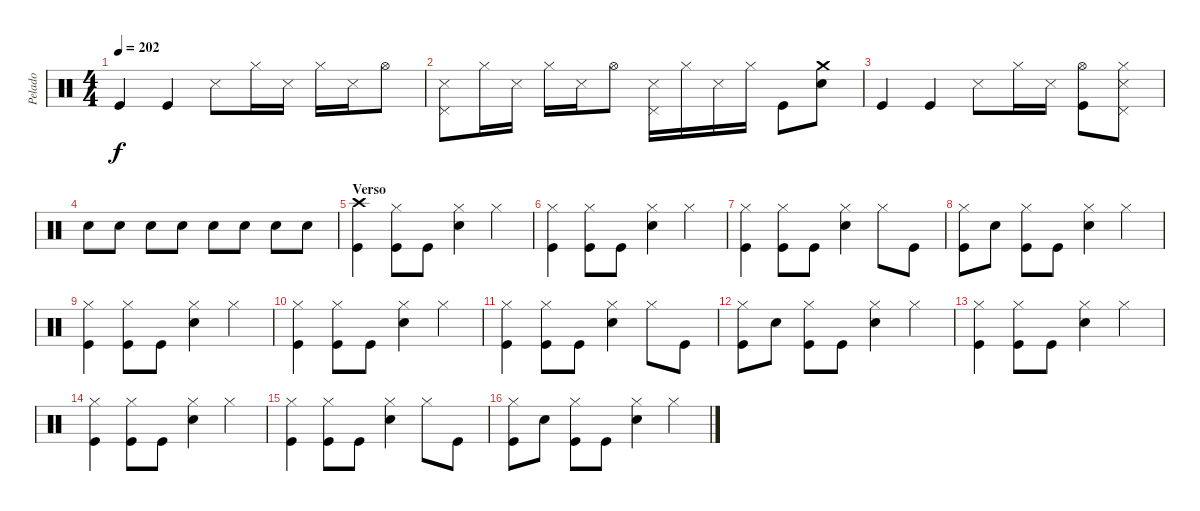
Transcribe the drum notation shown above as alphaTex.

\track ("Pelado" "Pelado") {instrument percussion}
\staff {score}
\articulation defaults
\ts (4 4)
\tempo 202
\clef neutral
\ks c "Kick (hit)".4{dy f} "Kick (hit)".4 "Snare (side stick) 3".8 "Hi-Hat (closed)".16 "Snare (side stick) 3".16 "Hi-Hat (closed)".16 "Snare (side stick) 3".16 "Hi-Hat (open)".8
|
("Snare (side stick) 3" "Pedal Hi-Hat (hit)").8 "Hi-Hat (closed)".16 "Snare (side stick) 3".16 "Hi-Hat (closed)".16 "Snare (side stick) 3".16 "Hi-Hat (open)".8 ("Snare (side stick) 3" "Pedal Hi-Hat (hit)").16 "Hi-Hat (closed)".16 "Snare (side stick) 3".16 "Hi-Hat (closed)".16 "Kick (hit)".8 ("Crash medium (hit)" "Electric Snare (hit)").8 |
"Kick (hit)".4 "Kick (hit)".4 "Snare (side stick) 3".8 "Hi-Hat (closed)".16 "Snare (side stick) 3".16 ("Hi-Hat (open)" "Kick (hit)").8 ("Hi-Hat (closed)" "Snare (side stick) 3" "Pedal Hi-Hat (hit)").8 |
"Electric Snare (hit)".8 "Electric Snare (hit)".8 "Electric Snare (hit)".8 "Electric Snare (hit)".8 "Electric Snare (hit)".8 "Electric Snare (hit)".8 "Electric Snare (hit)".8 "Electric Snare (hit)".8 |
\section ("" "Verso")
("Crash high (hit)" "Kick (hit)").4 ("Hi-Hat (closed)" "Kick (hit)").8 "Kick (hit)".8 ("Hi-Hat (closed)" "Electric Snare (hit)").4 "Hi-Hat (closed)".4 |
("Hi-Hat (closed)" "Kick (hit)").4 ("Hi-Hat (closed)" "Kick (hit)").8 "Kick (hit)".8 ("Hi-Hat (closed)" "Electric Snare (hit)").4 "Hi-Hat (closed)".4 |
("Hi-Hat (closed)" "Kick (hit)").4 ("Hi-Hat (closed)" "Kick (hit)").8 "Kick (hit)".8 ("Hi-Hat (closed)" "Electric Snare (hit)").4 "Hi-Hat (closed)".8 "Kick (hit)".8 |
("Hi-Hat (closed)" "Kick (hit)").8 "Electric Snare (hit)".8 ("Hi-Hat (closed)" "Kick (hit)").8 "Kick (hit)".8 ("Hi-Hat (closed)" "Electric Snare (hit)").4 "Hi-Hat (closed)".4 |
("Hi-Hat (closed)" "Kick (hit)").4 ("Hi-Hat (closed)" "Kick (hit)").8 "Kick (hit)".8 ("Hi-Hat (closed)" "Electric Snare (hit)").4 "Hi-Hat (closed)".4 |
("Hi-Hat (closed)" "Kick (hit)").4 ("Hi-Hat (closed)" "Kick (hit)").8 "Kick (hit)".8 ("Hi-Hat (closed)" "Electric Snare (hit)").4 "Hi-Hat (closed)".4 |
("Hi-Hat (closed)" "Kick (hit)").4 ("Hi-Hat (closed)" "Kick (hit)").8 "Kick (hit)".8 ("Hi-Hat (closed)" "Electric Snare (hit)").4 "Hi-Hat (closed)".8 "Kick (hit)".8 |
("Hi-Hat (closed)" "Kick (hit)").8 "Electric Snare (hit)".8 ("Hi-Hat (closed)" "Kick (hit)").8 "Kick (hit)".8 ("Hi-Hat (closed)" "Electric Snare (hit)").4 "Hi-Hat (closed)".4 |
("Hi-Hat (closed)" "Kick (hit)").4 ("Hi-Hat (closed)" "Kick (hit)").8 "Kick (hit)".8 ("Hi-Hat (closed)" "Electric Snare (hit)").4 "Hi-Hat (closed)".4 |
("Hi-Hat (closed)" "Kick (hit)").4 ("Hi-Hat (closed)" "Kick (hit)").8 "Kick (hit)".8 ("Hi-Hat (closed)" "Electric Snare (hit)").4 "Hi-Hat (closed)".4 |
("Hi-Hat (closed)" "Kick (hit)").4 ("Hi-Hat (closed)" "Kick (hit)").8 "Kick (hit)".8 ("Hi-Hat (closed)" "Electric Snare (hit)").4 "Hi-Hat (closed)".8 "Kick (hit)".8 |
("Hi-Hat (closed)" "Kick (hit)").8 "Electric Snare (hit)".8 ("Hi-Hat (closed)" "Kick (hit)").8 "Kick (hit)".8 ("Hi-Hat (closed)" "Electric Snare (hit)").4 "Hi-Hat (closed)".4
